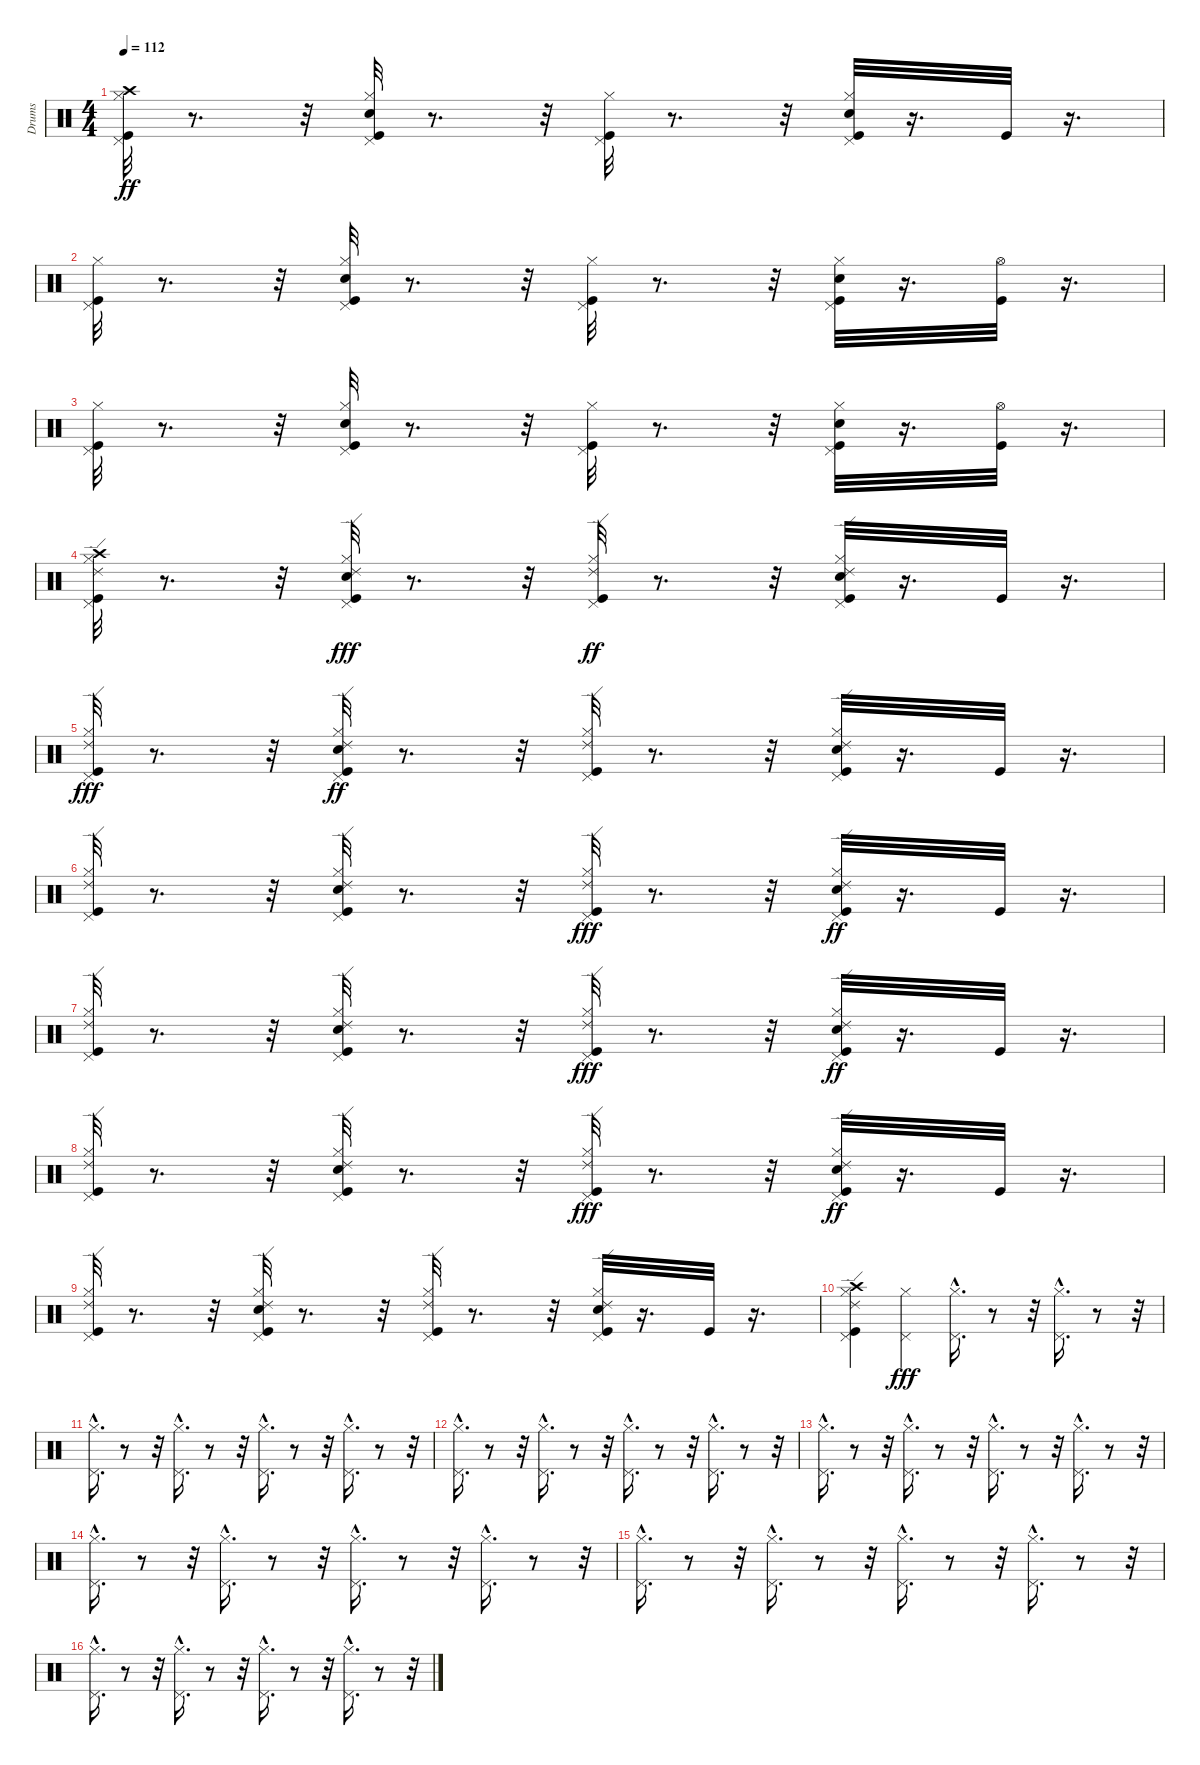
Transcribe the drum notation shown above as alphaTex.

\track ("Drums" "Drums") {instrument percussion}
\staff {score}
\articulation defaults
\ts (4 4)
\tempo 112
\clef neutral
\ks c
("Crash high (hit)" "Kick (hit)" "Pedal Hi-Hat (hit)" "Hi-Hat (closed)").32{dy ff} r.8{d} r.32 ("Hi-Hat (closed)" "Pedal Hi-Hat (hit)" "Snare (hit) 2" "Kick (hit)").32 r.8{d} r.32 ("Pedal Hi-Hat (hit)" "Hi-Hat (closed)" "Kick (hit)").32 r.8{d} r.32 ("Snare (hit) 2" "Kick (hit)" "Hi-Hat (closed)" "Pedal Hi-Hat (hit)").32 r.16{d} "Kick (hit)".32 r.16{d} |
("Kick (hit)" "Hi-Hat (closed)" "Pedal Hi-Hat (hit)").32 r.8{d} r.32 ("Kick (hit)" "Snare (hit) 2" "Pedal Hi-Hat (hit)" "Hi-Hat (closed)").32 r.8{d} r.32 ("Pedal Hi-Hat (hit)" "Hi-Hat (closed)" "Kick (hit)").32 r.8{d} r.32 ("Hi-Hat (closed)" "Snare (hit) 2" "Kick (hit)" "Pedal Hi-Hat (hit)").32 r.16{d} ("Hi-Hat (open)" "Kick (hit)").32 r.16{d} |
("Pedal Hi-Hat (hit)" "Kick (hit)" "Hi-Hat (closed)").32 r.8{d} r.32 ("Kick (hit)" "Pedal Hi-Hat (hit)" "Hi-Hat (closed)" "Snare (hit) 2").32 r.8{d} r.32 ("Pedal Hi-Hat (hit)" "Hi-Hat (closed)" "Kick (hit)").32 r.8{d} r.32 ("Pedal Hi-Hat (hit)" "Snare (hit) 2" "Kick (hit)" "Hi-Hat (closed)").32 r.16{d} ("Hi-Hat (open)" "Kick (hit)").32 r.16{d} |
("Ride (edge) 2" "Hi-Hat (closed)" "Crash high (hit)" "Kick (hit)" "Pedal Hi-Hat (hit)").32 r.8{d} r.32 ("Kick (hit)" "Pedal Hi-Hat (hit)" "Hi-Hat (closed)" "Snare (hit) 2" "Ride (edge) 2").32{dy fff} r.8{d} r.32 ("Ride (edge) 2" "Pedal Hi-Hat (hit)" "Kick (hit)" "Hi-Hat (closed)").32{dy ff} r.8{d} r.32 ("Ride (edge) 2" "Snare (hit) 2" "Pedal Hi-Hat (hit)" "Kick (hit)" "Hi-Hat (closed)").32 r.16{d} "Kick (hit)".32 r.16{d} |
("Pedal Hi-Hat (hit)" "Kick (hit)" "Hi-Hat (closed)" "Ride (edge) 2").32{dy fff} r.8{d} r.32 ("Hi-Hat (closed)" "Pedal Hi-Hat (hit)" "Kick (hit)" "Ride (edge) 2" "Snare (hit) 2").32{dy ff} r.8{d} r.32 ("Ride (edge) 2" "Kick (hit)" "Hi-Hat (closed)" "Pedal Hi-Hat (hit)").32 r.8{d} r.32 ("Pedal Hi-Hat (hit)" "Ride (edge) 2" "Kick (hit)" "Hi-Hat (closed)" "Snare (hit) 2").32 r.16{d} "Kick (hit)".32 r.16{d} |
("Ride (edge) 2" "Hi-Hat (closed)" "Kick (hit)" "Pedal Hi-Hat (hit)").32 r.8{d} r.32 ("Hi-Hat (closed)" "Ride (edge) 2" "Snare (hit) 2" "Kick (hit)" "Pedal Hi-Hat (hit)").32 r.8{d} r.32 ("Kick (hit)" "Hi-Hat (closed)" "Pedal Hi-Hat (hit)" "Ride (edge) 2").32{dy fff} r.8{d} r.32 ("Kick (hit)" "Ride (edge) 2" "Pedal Hi-Hat (hit)" "Snare (hit) 2" "Hi-Hat (closed)").32{dy ff} r.16{d} "Kick (hit)".32 r.16{d} |
("Hi-Hat (closed)" "Ride (edge) 2" "Kick (hit)" "Pedal Hi-Hat (hit)").32 r.8{d} r.32 ("Ride (edge) 2" "Snare (hit) 2" "Kick (hit)" "Pedal Hi-Hat (hit)" "Hi-Hat (closed)").32 r.8{d} r.32 ("Pedal Hi-Hat (hit)" "Kick (hit)" "Hi-Hat (closed)" "Ride (edge) 2").32{dy fff} r.8{d} r.32 ("Pedal Hi-Hat (hit)" "Snare (hit) 2" "Kick (hit)" "Ride (edge) 2" "Hi-Hat (closed)").32{dy ff} r.16{d} "Kick (hit)".32 r.16{d} |
("Kick (hit)" "Ride (edge) 2" "Hi-Hat (closed)" "Pedal Hi-Hat (hit)").32 r.8{d} r.32 ("Kick (hit)" "Ride (edge) 2" "Snare (hit) 2" "Pedal Hi-Hat (hit)" "Hi-Hat (closed)").32 r.8{d} r.32 ("Pedal Hi-Hat (hit)" "Hi-Hat (closed)" "Kick (hit)" "Ride (edge) 2").32{dy fff} r.8{d} r.32 ("Hi-Hat (closed)" "Pedal Hi-Hat (hit)" "Kick (hit)" "Ride (edge) 2" "Snare (hit) 2").32{dy ff} r.16{d} "Kick (hit)".32 r.16{d} |
("Hi-Hat (closed)" "Ride (edge) 2" "Kick (hit)" "Pedal Hi-Hat (hit)").32 r.8{d} r.32 ("Ride (edge) 2" "Hi-Hat (closed)" "Kick (hit)" "Snare (hit) 2" "Pedal Hi-Hat (hit)").32 r.8{d} r.32 ("Ride (edge) 2" "Hi-Hat (closed)" "Pedal Hi-Hat (hit)" "Kick (hit)").32 r.8{d} r.32 ("Snare (hit) 2" "Kick (hit)" "Ride (edge) 2" "Pedal Hi-Hat (hit)" "Hi-Hat (closed)").32 r.16{d} "Kick (hit)".32 r.16{d} |
("Ride (edge) 2" "Crash high (hit)" "Pedal Hi-Hat (hit)" "Kick (hit)" "Hi-Hat (closed)").4 ("Hi-Hat (closed)" "Pedal Hi-Hat (hit)").4{dy fff} ("Hi-Hat (closed)"{hac} "Pedal Hi-Hat (hit)"{hac}).16{d} r.8 r.32 ("Pedal Hi-Hat (hit)"{hac} "Hi-Hat (closed)"{hac}).16{d} r.8 r.32 |
("Hi-Hat (closed)"{hac} "Pedal Hi-Hat (hit)"{hac}).16{d} r.8 r.32 ("Hi-Hat (closed)"{hac} "Pedal Hi-Hat (hit)"{hac}).16{d} r.8 r.32 ("Pedal Hi-Hat (hit)"{hac} "Hi-Hat (closed)"{hac}).16{d} r.8 r.32 ("Pedal Hi-Hat (hit)"{hac} "Hi-Hat (closed)"{hac}).16{d} r.8 r.32 |
("Pedal Hi-Hat (hit)"{hac} "Hi-Hat (closed)"{hac}).16{d} r.8 r.32 ("Hi-Hat (closed)"{hac} "Pedal Hi-Hat (hit)"{hac}).16{d} r.8 r.32 ("Pedal Hi-Hat (hit)"{hac} "Hi-Hat (closed)"{hac}).16{d} r.8 r.32 ("Pedal Hi-Hat (hit)"{hac} "Hi-Hat (closed)"{hac}).16{d} r.8 r.32 |
("Hi-Hat (closed)"{hac} "Pedal Hi-Hat (hit)"{hac}).16{d} r.8 r.32 ("Pedal Hi-Hat (hit)"{hac} "Hi-Hat (closed)"{hac}).16{d} r.8 r.32 ("Pedal Hi-Hat (hit)"{hac} "Hi-Hat (closed)"{hac}).16{d} r.8 r.32 ("Hi-Hat (closed)"{hac} "Pedal Hi-Hat (hit)"{hac}).16{d} r.8 r.32 |
("Hi-Hat (closed)"{hac} "Pedal Hi-Hat (hit)"{hac}).16{d} r.8 r.32 ("Hi-Hat (closed)"{hac} "Pedal Hi-Hat (hit)"{hac}).16{d} r.8 r.32 ("Pedal Hi-Hat (hit)"{hac} "Hi-Hat (closed)"{hac}).16{d} r.8 r.32 ("Pedal Hi-Hat (hit)"{hac} "Hi-Hat (closed)"{hac}).16{d} r.8 r.32 |
("Hi-Hat (closed)"{hac} "Pedal Hi-Hat (hit)"{hac}).16{d} r.8 r.32 ("Pedal Hi-Hat (hit)"{hac} "Hi-Hat (closed)"{hac}).16{d} r.8 r.32 ("Pedal Hi-Hat (hit)"{hac} "Hi-Hat (closed)"{hac}).16{d} r.8 r.32 ("Pedal Hi-Hat (hit)"{hac} "Hi-Hat (closed)"{hac}).16{d} r.8 r.32 |
("Hi-Hat (closed)"{hac} "Pedal Hi-Hat (hit)"{hac}).16{d} r.8 r.32 ("Pedal Hi-Hat (hit)"{hac} "Hi-Hat (closed)"{hac}).16{d} r.8 r.32 ("Pedal Hi-Hat (hit)"{hac} "Hi-Hat (closed)"{hac}).16{d} r.8 r.32 ("Pedal Hi-Hat (hit)"{hac} "Hi-Hat (closed)"{hac}).16{d} r.8 r.32
